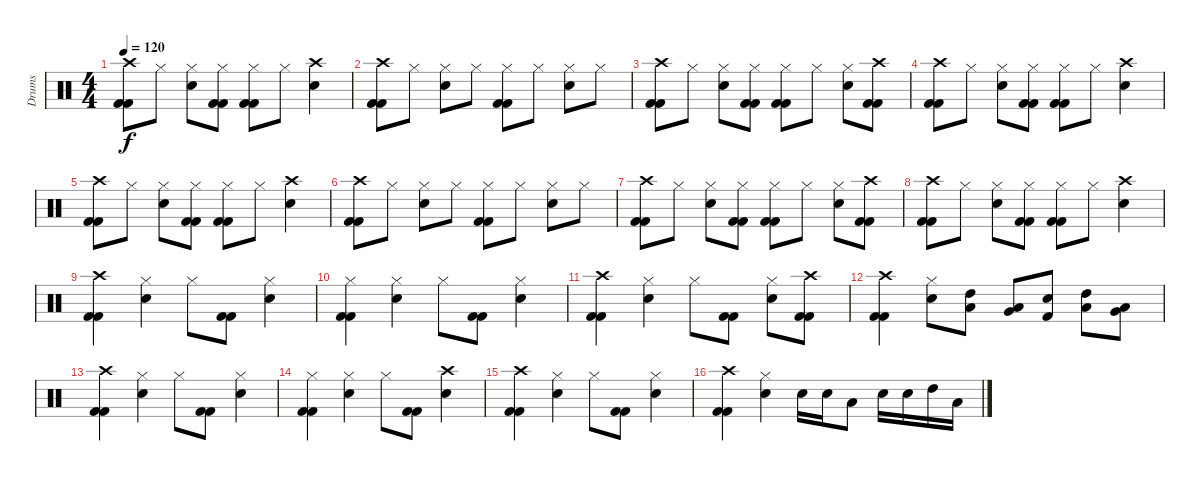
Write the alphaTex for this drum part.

\track ("Drums" "Drums") {instrument percussion}
\staff {score}
\articulation defaults
\ts (4 4)
\tempo 120
\clef neutral
\ks c
("Crash high (hit)" "Kick (hit) 2" "Kick (hit) 2").8{dy f} "Hi-Hat (closed)".8 ("Electric Snare (hit)" "Hi-Hat (closed)").8 ("Hi-Hat (closed)" "Kick (hit) 2" "Kick (hit) 2").8 ("Kick (hit) 2" "Kick (hit) 2" "Hi-Hat (closed)").8 "Hi-Hat (closed)".8 ("Electric Snare (hit)" "Crash high (hit)").4 |
("Crash high (hit)" "Kick (hit) 2" "Kick (hit) 2").8 "Hi-Hat (closed)".8 ("Electric Snare (hit)" "Hi-Hat (closed)").8 "Hi-Hat (closed)".8 ("Kick (hit) 2" "Kick (hit) 2" "Hi-Hat (closed)").8 "Hi-Hat (closed)".8 ("Electric Snare (hit)" "Hi-Hat (closed)").8 "Hi-Hat (closed)".8 |
("Crash high (hit)" "Kick (hit) 2" "Kick (hit) 2").8 "Hi-Hat (closed)".8 ("Electric Snare (hit)" "Hi-Hat (closed)").8 ("Hi-Hat (closed)" "Kick (hit) 2" "Kick (hit) 2").8 ("Kick (hit) 2" "Kick (hit) 2" "Hi-Hat (closed)").8 "Hi-Hat (closed)".8 ("Electric Snare (hit)" "Hi-Hat (closed)").8 ("Crash high (hit)" "Kick (hit) 2" "Kick (hit) 2").8 |
("Crash high (hit)" "Kick (hit) 2" "Kick (hit) 2").8 "Hi-Hat (closed)".8 ("Electric Snare (hit)" "Hi-Hat (closed)").8 ("Hi-Hat (closed)" "Kick (hit) 2" "Kick (hit) 2").8 ("Kick (hit) 2" "Kick (hit) 2" "Hi-Hat (closed)").8 "Hi-Hat (closed)".8 ("Electric Snare (hit)" "Crash high (hit)").4 |
("Crash high (hit)" "Kick (hit) 2" "Kick (hit) 2").8 "Hi-Hat (closed)".8 ("Electric Snare (hit)" "Hi-Hat (closed)").8 ("Hi-Hat (closed)" "Kick (hit) 2" "Kick (hit) 2").8 ("Kick (hit) 2" "Kick (hit) 2" "Hi-Hat (closed)").8 "Hi-Hat (closed)".8 ("Electric Snare (hit)" "Crash high (hit)").4 |
("Crash high (hit)" "Kick (hit) 2" "Kick (hit) 2").8 "Hi-Hat (closed)".8 ("Electric Snare (hit)" "Hi-Hat (closed)").8 "Hi-Hat (closed)".8 ("Kick (hit) 2" "Kick (hit) 2" "Hi-Hat (closed)").8 "Hi-Hat (closed)".8 ("Electric Snare (hit)" "Hi-Hat (closed)").8 "Hi-Hat (closed)".8 |
("Crash high (hit)" "Kick (hit) 2" "Kick (hit) 2").8 "Hi-Hat (closed)".8 ("Electric Snare (hit)" "Hi-Hat (closed)").8 ("Hi-Hat (closed)" "Kick (hit) 2" "Kick (hit) 2").8 ("Kick (hit) 2" "Kick (hit) 2" "Hi-Hat (closed)").8 "Hi-Hat (closed)".8 ("Electric Snare (hit)" "Hi-Hat (closed)").8 ("Crash high (hit)" "Kick (hit) 2" "Kick (hit) 2").8 |
("Crash high (hit)" "Kick (hit) 2" "Kick (hit) 2").8 "Hi-Hat (closed)".8 ("Electric Snare (hit)" "Hi-Hat (closed)").8 ("Hi-Hat (closed)" "Kick (hit) 2" "Kick (hit) 2").8 ("Kick (hit) 2" "Kick (hit) 2" "Hi-Hat (closed)").8 "Hi-Hat (closed)".8 ("Electric Snare (hit)" "Crash high (hit)").4 |
("Crash high (hit)" "Kick (hit) 2" "Kick (hit) 2").4 ("Electric Snare (hit)" "Hi-Hat (closed)").4 "Hi-Hat (closed)".8 ("Kick (hit) 2" "Kick (hit) 2").8 ("Electric Snare (hit)" "Hi-Hat (closed)").4 |
("Hi-Hat (closed)" "Kick (hit) 2" "Kick (hit) 2").4 ("Electric Snare (hit)" "Hi-Hat (closed)").4 "Hi-Hat (closed)".8 ("Kick (hit) 2" "Kick (hit) 2").8 ("Electric Snare (hit)" "Hi-Hat (closed)").4 |
("Crash high (hit)" "Kick (hit) 2" "Kick (hit) 2").4 ("Electric Snare (hit)" "Hi-Hat (closed)").4 "Hi-Hat (closed)".8 ("Kick (hit) 2" "Kick (hit) 2").8 ("Electric Snare (hit)" "Hi-Hat (closed)").8 ("Kick (hit) 2" "Kick (hit) 2" "Crash high (hit)").8 |
("Crash high (hit)" "Kick (hit) 2" "Kick (hit) 2").4 ("Electric Snare (hit)" "Hi-Hat (closed)").8 ("High Tom (hit)" "Low Tom (hit)").8 ("Low Tom (hit)" "Very Low Tom (hit)").8 ("Electric Snare (hit)" "Kick (hit) 2").8 ("High Tom (hit)" "Low Tom (hit)").8 ("Low Tom (hit)" "Very Low Tom (hit)").8 |
("Crash high (hit)" "Kick (hit) 2" "Kick (hit) 2").4 ("Electric Snare (hit)" "Hi-Hat (closed)").4 "Hi-Hat (closed)".8 ("Kick (hit) 2" "Kick (hit) 2").8 ("Electric Snare (hit)" "Hi-Hat (closed)").4 |
("Hi-Hat (closed)" "Kick (hit) 2" "Kick (hit) 2").4 ("Electric Snare (hit)" "Hi-Hat (closed)").4 "Hi-Hat (closed)".8 ("Kick (hit) 2" "Kick (hit) 2").8 ("Electric Snare (hit)" "Crash high (hit)").4 |
("Crash high (hit)" "Kick (hit) 2" "Kick (hit) 2").4 ("Electric Snare (hit)" "Hi-Hat (closed)").4 "Hi-Hat (closed)".8 ("Kick (hit) 2" "Kick (hit) 2").8 ("Electric Snare (hit)" "Hi-Hat (closed)").4 |
("Crash high (hit)" "Kick (hit) 2" "Kick (hit) 2").4 ("Electric Snare (hit)" "Hi-Hat (closed)").4 "Electric Snare (hit)".16 "Electric Snare (hit)".16 "Low Tom (hit)".8 "Electric Snare (hit)".16 "Electric Snare (hit)".16 "High Tom (hit)".16 "Low Tom (hit)".16
